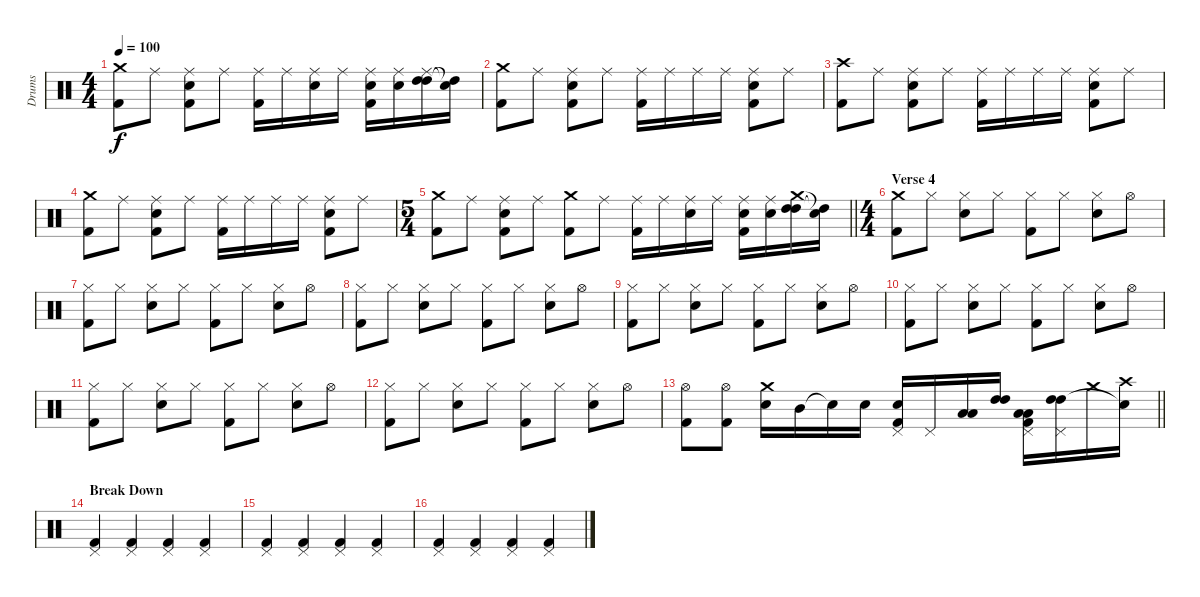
\track ("Drums" "Drums") {instrument percussion}
\staff {score}
\articulation defaults
\ts (4 4)
\tempo 100
\clef neutral
\ks c
("Crash medium (hit)" "Kick (hit) 2").8{dy f} "Ride (middle)".8 ("Ride (middle)" "Electric Snare (hit)" "Kick (hit) 2").8 "Ride (middle)".8 ("Ride (middle)" "Kick (hit) 2").16 "Ride (middle)".16 ("Ride (middle)" "Electric Snare (hit)").16 "Ride (middle)".16 ("Ride (middle)" "Electric Snare (hit)" "Kick (hit) 2").16 ("Ride (middle)" "Electric Snare (hit)").16 ("Ride (middle)" "High Tom (hit)" "High Tom (hit)").16 ("Snare (hit)"{t} "High Tom (hit)"{t}).16 |
("Crash medium (hit)" "Kick (hit) 2").8 "Ride (middle)".8 ("Ride (middle)" "Electric Snare (hit)" "Kick (hit) 2").8 "Ride (middle)".8 ("Ride (middle)" "Kick (hit) 2").16 "Ride (middle)".16 "Ride (middle)".16 "Ride (middle)".16 ("Ride (middle)" "Electric Snare (hit)" "Kick (hit) 2").8 "Ride (middle)".8 |
("Crash high (hit)" "Kick (hit) 2").8 "Ride (middle)".8 ("Ride (middle)" "Electric Snare (hit)" "Kick (hit) 2").8 "Ride (middle)".8 ("Ride (middle)" "Kick (hit) 2").16 "Ride (middle)".16 "Ride (middle)".16 "Ride (middle)".16 ("Ride (middle)" "Electric Snare (hit)" "Kick (hit) 2").8 "Ride (middle)".8 |
("Crash medium (hit)" "Kick (hit) 2").8 "Ride (middle)".8 ("Ride (middle)" "Electric Snare (hit)" "Kick (hit) 2").8 "Ride (middle)".8 ("Ride (middle)" "Kick (hit) 2").16 "Ride (middle)".16 "Ride (middle)".16 "Ride (middle)".16 ("Ride (middle)" "Electric Snare (hit)" "Kick (hit) 2").8 "Ride (middle)".8 |
\ts (5 4)
\barLineRight lightlight
("Crash medium (hit)" "Kick (hit) 2").8 "Ride (middle)".8 ("Ride (middle)" "Electric Snare (hit)" "Kick (hit) 2").8 "Ride (middle)".8 ("Crash medium (hit)" "Kick (hit) 2").8 "Ride (middle)".8 ("Ride (middle)" "Kick (hit) 2").16 "Ride (middle)".16 ("Ride (middle)" "Electric Snare (hit)").16 "Ride (middle)".16 ("Ride (middle)" "Electric Snare (hit)" "Kick (hit) 2").16 ("Ride (middle)" "Electric Snare (hit)").16 ("Crash medium (hit)" "High Tom (hit)" "High Tom (hit)").16 ("Snare (hit)"{t} "High Tom (hit)"{t}).16 |
\ts (4 4)
\section ("" "Verse 4")
("Crash medium (hit)" "Kick (hit) 2").8 "Hi-Hat (closed)".8 ("Hi-Hat (closed)" "Electric Snare (hit)").8 "Hi-Hat (closed)".8 ("Hi-Hat (closed)" "Kick (hit) 2").8 "Hi-Hat (closed)".8 ("Hi-Hat (closed)" "Electric Snare (hit)").8 "Hi-Hat (open)".8 |
("Hi-Hat (closed)" "Kick (hit) 2").8 "Hi-Hat (closed)".8 ("Hi-Hat (closed)" "Electric Snare (hit)").8 "Hi-Hat (closed)".8 ("Hi-Hat (closed)" "Kick (hit) 2").8 "Hi-Hat (closed)".8 ("Hi-Hat (closed)" "Electric Snare (hit)").8 "Hi-Hat (open)".8 |
("Hi-Hat (closed)" "Kick (hit) 2").8 "Hi-Hat (closed)".8 ("Hi-Hat (closed)" "Electric Snare (hit)").8 "Hi-Hat (closed)".8 ("Hi-Hat (closed)" "Kick (hit) 2").8 "Hi-Hat (closed)".8 ("Hi-Hat (closed)" "Electric Snare (hit)").8 "Hi-Hat (open)".8 |
("Hi-Hat (closed)" "Kick (hit) 2").8 "Hi-Hat (closed)".8 ("Hi-Hat (closed)" "Electric Snare (hit)").8 "Hi-Hat (closed)".8 ("Hi-Hat (closed)" "Kick (hit) 2").8 "Hi-Hat (closed)".8 ("Hi-Hat (closed)" "Electric Snare (hit)").8 "Hi-Hat (open)".8 |
("Hi-Hat (closed)" "Kick (hit) 2").8 "Hi-Hat (closed)".8 ("Hi-Hat (closed)" "Electric Snare (hit)").8 "Hi-Hat (closed)".8 ("Hi-Hat (closed)" "Kick (hit) 2").8 "Hi-Hat (closed)".8 ("Hi-Hat (closed)" "Electric Snare (hit)").8 "Hi-Hat (open)".8 |
("Hi-Hat (closed)" "Kick (hit) 2").8 "Hi-Hat (closed)".8 ("Hi-Hat (closed)" "Electric Snare (hit)").8 "Hi-Hat (closed)".8 ("Hi-Hat (closed)" "Kick (hit) 2").8 "Hi-Hat (closed)".8 ("Hi-Hat (closed)" "Electric Snare (hit)").8 "Hi-Hat (open)".8 |
("Hi-Hat (closed)" "Kick (hit) 2").8 "Hi-Hat (closed)".8 ("Hi-Hat (closed)" "Electric Snare (hit)").8 "Hi-Hat (closed)".8 ("Hi-Hat (closed)" "Kick (hit) 2").8 "Hi-Hat (closed)".8 ("Hi-Hat (closed)" "Electric Snare (hit)").8 "Hi-Hat (open)".8 |
\barLineRight lightlight
("Hi-Hat (open)" "Kick (hit) 2").8 ("Hi-Hat (open)" "Kick (hit) 2").8 ("Crash medium (hit)" "Electric Snare (hit)").16 "Mid Tom (hit)".16 "Snare (hit)"{t}.16 "Electric Snare (hit)".16 ("Pedal Hi-Hat (hit)" "Electric Snare (hit)" "Kick (hit) 2").16 "Pedal Hi-Hat (hit)".16 ("Low Floor Tom (hit)" "Low Floor Tom (hit)").16 ("High Tom (hit)" "High Tom (hit)").16 ("Pedal Hi-Hat (hit)" "Low Floor Tom (hit)" "Low Floor Tom (hit)" "Kick (hit) 2").16 ("Pedal Hi-Hat (hit)" "High Tom (hit)" "High Tom (hit)").16 "Crash medium (hit)".16 ("Crash high (hit)" "Snare (hit)"{t}).16 |
\section ("" "Break Down")
("Pedal Hi-Hat (hit)" "Kick (hit) 2").4 ("Pedal Hi-Hat (hit)" "Kick (hit) 2").4 ("Pedal Hi-Hat (hit)" "Kick (hit) 2").4 ("Pedal Hi-Hat (hit)" "Kick (hit) 2").4 |
("Pedal Hi-Hat (hit)" "Kick (hit) 2").4 ("Pedal Hi-Hat (hit)" "Kick (hit) 2").4 ("Pedal Hi-Hat (hit)" "Kick (hit) 2").4 ("Pedal Hi-Hat (hit)" "Kick (hit) 2").4 |
("Pedal Hi-Hat (hit)" "Kick (hit) 2").4 ("Pedal Hi-Hat (hit)" "Kick (hit) 2").4 ("Pedal Hi-Hat (hit)" "Kick (hit) 2").4 ("Pedal Hi-Hat (hit)" "Kick (hit) 2").4
